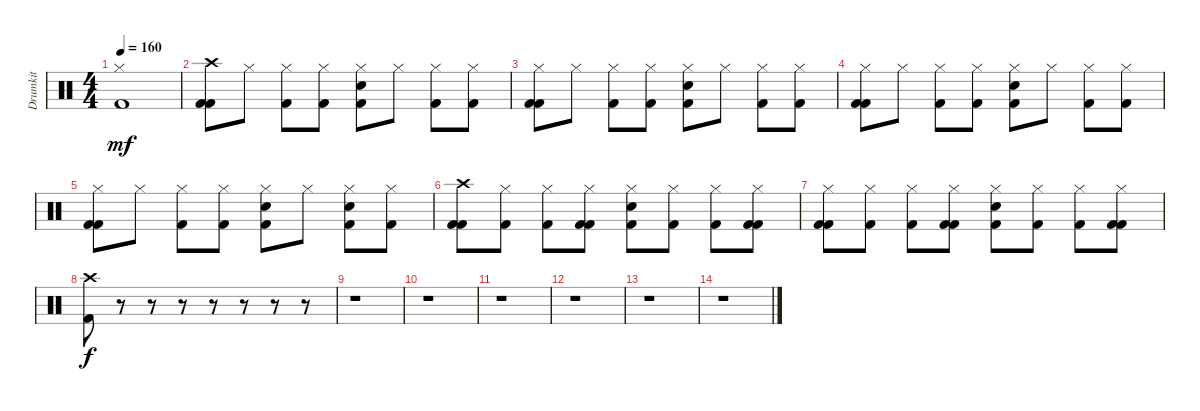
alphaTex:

\track ("Drumkit" "Drumkit") {instrument percussion}
\staff {score}
\articulation defaults
\ts (4 4)
\tempo 160
\clef neutral
\ks c
("Hi-Hat (closed)" "Kick (hit) 2").1{dy mf} |
("Crash high (hit)" "Kick (hit) 2" "Kick (hit) 2").8 "Hi-Hat (closed)".8 ("Hi-Hat (closed)" "Kick (hit) 2").8 ("Hi-Hat (closed)" "Kick (hit) 2").8 ("Hi-Hat (closed)" "Snare (hit) 2" "Kick (hit) 2").8 "Hi-Hat (closed)".8 ("Hi-Hat (closed)" "Kick (hit) 2").8 ("Hi-Hat (closed)" "Kick (hit) 2").8 |
("Hi-Hat (closed)" "Kick (hit) 2" "Kick (hit) 2").8 "Hi-Hat (closed)".8 ("Hi-Hat (closed)" "Kick (hit) 2").8 ("Hi-Hat (closed)" "Kick (hit) 2").8 ("Hi-Hat (closed)" "Snare (hit) 2" "Kick (hit) 2").8 "Hi-Hat (closed)".8 ("Hi-Hat (closed)" "Kick (hit) 2").8 ("Hi-Hat (closed)" "Kick (hit) 2").8 |
("Hi-Hat (closed)" "Kick (hit) 2" "Kick (hit) 2").8 "Hi-Hat (closed)".8 ("Hi-Hat (closed)" "Kick (hit) 2").8 ("Hi-Hat (closed)" "Kick (hit) 2").8 ("Hi-Hat (closed)" "Snare (hit) 2" "Kick (hit) 2").8 "Hi-Hat (closed)".8 ("Hi-Hat (closed)" "Kick (hit) 2").8 ("Hi-Hat (closed)" "Kick (hit) 2").8 |
("Hi-Hat (closed)" "Kick (hit) 2" "Kick (hit) 2").8 "Hi-Hat (closed)".8 ("Hi-Hat (closed)" "Kick (hit) 2").8 ("Hi-Hat (closed)" "Kick (hit) 2").8 ("Hi-Hat (closed)" "Snare (hit) 2" "Kick (hit) 2").8 "Hi-Hat (closed)".8 ("Hi-Hat (closed)" "Snare (hit) 2" "Kick (hit) 2").8 ("Hi-Hat (closed)" "Kick (hit) 2").8 |
("Crash high (hit)" "Kick (hit) 2" "Kick (hit) 2").8 ("Hi-Hat (closed)" "Kick (hit) 2").8 ("Hi-Hat (closed)" "Kick (hit) 2").8 ("Hi-Hat (closed)" "Kick (hit) 2" "Kick (hit) 2").8 ("Hi-Hat (closed)" "Snare (hit) 2" "Kick (hit) 2").8 ("Hi-Hat (closed)" "Kick (hit) 2").8 ("Hi-Hat (closed)" "Kick (hit) 2").8 ("Hi-Hat (closed)" "Kick (hit) 2" "Kick (hit) 2").8 |
("Hi-Hat (closed)" "Kick (hit) 2" "Kick (hit) 2").8 ("Hi-Hat (closed)" "Kick (hit) 2").8 ("Hi-Hat (closed)" "Kick (hit) 2").8 ("Hi-Hat (closed)" "Kick (hit) 2" "Kick (hit) 2").8 ("Hi-Hat (closed)" "Snare (hit) 2" "Kick (hit) 2").8 ("Hi-Hat (closed)" "Kick (hit) 2").8 ("Hi-Hat (closed)" "Kick (hit) 2").8 ("Hi-Hat (closed)" "Kick (hit) 2" "Kick (hit) 2").8 |
("Crash high (hit)" "Kick (hit) 2").8{dy f} r.8 r.8 r.8 r.8 r.8 r.8 r.8 |
r.1 |
r.1 |
r.1 |
r.1 |
r.1 |
r.1
